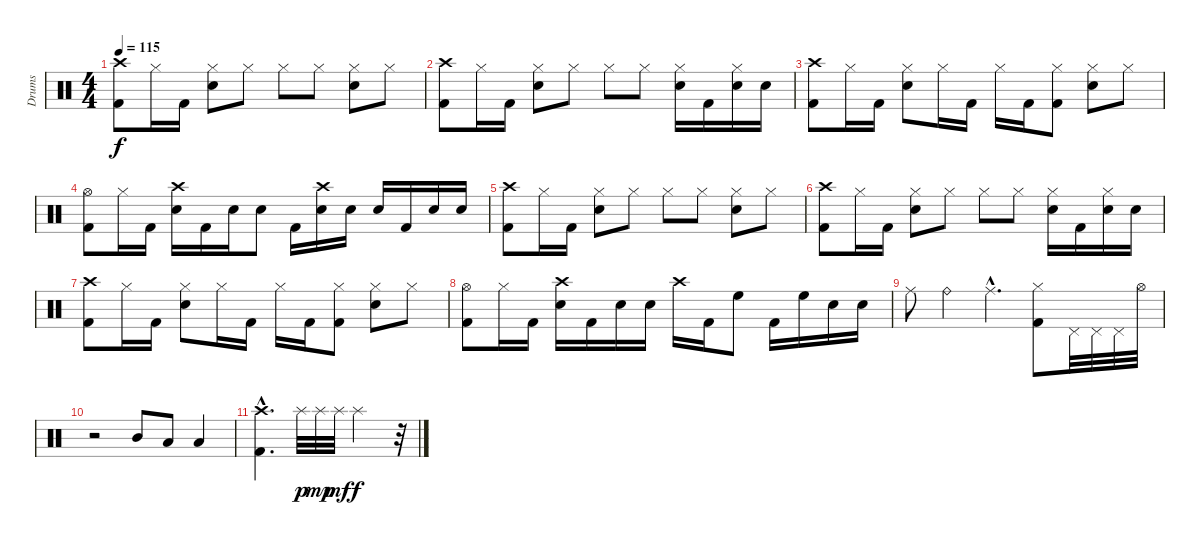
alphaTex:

\track ("Drums" "Drums") {instrument percussion}
\staff {score}
\articulation defaults
\ts (4 4)
\tempo 115
\clef neutral
\ks c
("Crash high (hit)" "Kick (hit) 2").8{dy f} "Hi-Hat (closed)".16 "Kick (hit) 2".16 ("Hi-Hat (closed)" "Electric Snare (hit)").8 "Hi-Hat (closed)".8 "Hi-Hat (closed)".8 "Hi-Hat (closed)".8 ("Hi-Hat (closed)" "Electric Snare (hit)").8 "Hi-Hat (closed)".8 |
("Crash high (hit)" "Kick (hit) 2").8 "Hi-Hat (closed)".16 "Kick (hit) 2".16 ("Hi-Hat (closed)" "Electric Snare (hit)").8 "Hi-Hat (closed)".8 "Hi-Hat (closed)".8 "Hi-Hat (closed)".8 ("Hi-Hat (closed)" "Electric Snare (hit)").16 "Kick (hit) 2".16 ("Hi-Hat (closed)" "Electric Snare (hit)").16 "Electric Snare (hit)".16 |
("Crash high (hit)" "Kick (hit) 2").8 "Hi-Hat (closed)".16 "Kick (hit) 2".16 ("Hi-Hat (closed)" "Electric Snare (hit)").8 "Hi-Hat (closed)".16 "Kick (hit) 2".16 "Hi-Hat (closed)".16 "Kick (hit) 2".16 ("Hi-Hat (closed)" "Kick (hit) 2").8 ("Hi-Hat (closed)" "Electric Snare (hit)").8 "Hi-Hat (closed)".8 |
("Hi-Hat (open)" "Kick (hit) 2").8 "Hi-Hat (closed)".16 "Kick (hit) 2".16 ("Crash high (hit)" "Electric Snare (hit)").16 "Kick (hit) 2".16 "Electric Snare (hit)".16 "Electric Snare (hit)".8 "Kick (hit) 2".16 ("Crash high (hit)" "Electric Snare (hit)").16 "Electric Snare (hit)".16 "Electric Snare (hit)".16 "Kick (hit) 2".16 "Electric Snare (hit)".16 "Electric Snare (hit)".16 |
("Crash high (hit)" "Kick (hit) 2").8 "Hi-Hat (closed)".16 "Kick (hit) 2".16 ("Hi-Hat (closed)" "Electric Snare (hit)").8 "Hi-Hat (closed)".8 "Hi-Hat (closed)".8 "Hi-Hat (closed)".8 ("Hi-Hat (closed)" "Electric Snare (hit)").8 "Hi-Hat (closed)".8 |
("Crash high (hit)" "Kick (hit) 2").8 "Hi-Hat (closed)".16 "Kick (hit) 2".16 ("Hi-Hat (closed)" "Electric Snare (hit)").8 "Hi-Hat (closed)".8 "Hi-Hat (closed)".8 "Hi-Hat (closed)".8 ("Hi-Hat (closed)" "Electric Snare (hit)").16 "Kick (hit) 2".16 ("Hi-Hat (closed)" "Electric Snare (hit)").16 "Electric Snare (hit)".16 |
("Crash high (hit)" "Kick (hit) 2").8 "Hi-Hat (closed)".16 "Kick (hit) 2".16 ("Hi-Hat (closed)" "Electric Snare (hit)").8 "Hi-Hat (closed)".16 "Kick (hit) 2".16 "Hi-Hat (closed)".16 "Kick (hit) 2".16 ("Hi-Hat (closed)" "Kick (hit) 2").8 ("Hi-Hat (closed)" "Electric Snare (hit)").8 "Hi-Hat (closed)".8 |
("Hi-Hat (open)" "Kick (hit) 2").8 "Hi-Hat (closed)".16 "Kick (hit) 2".16 ("Crash high (hit)" "Electric Snare (hit)").16 "Kick (hit) 2".16 "Electric Snare (hit)".16 "Electric Snare (hit)".16 "Crash high (hit)".16 "Kick (hit) 2".16 "High Floor Tom (hit)".8 "Kick (hit) 2".16 "High Floor Tom (hit)".16 "Electric Snare (hit)".16 "Electric Snare (hit)".16 |
"Ride (middle)".8 "Ride (bell)".4 "Ride (middle)"{hac}.4{d} ("Hi-Hat (closed)" "Kick (hit) 2").8 "Pedal Hi-Hat (hit)".32 "Pedal Hi-Hat (hit)".32 "Pedal Hi-Hat (hit)".32 "Hi-Hat (open)".32 |
r.2 "Mid Tom (hit)".8 "Low Tom (hit)".8 "Low Floor Tom (hit)".4 |
("Crash high (hit)"{hac} "Kick (hit) 2"{hac}).4{d} "Splash (hit)".32{dy p} "Splash (hit)".32{dy mp} "Splash (hit)".32{dy mf} "Splash (hit)".2{dy f} r.32
